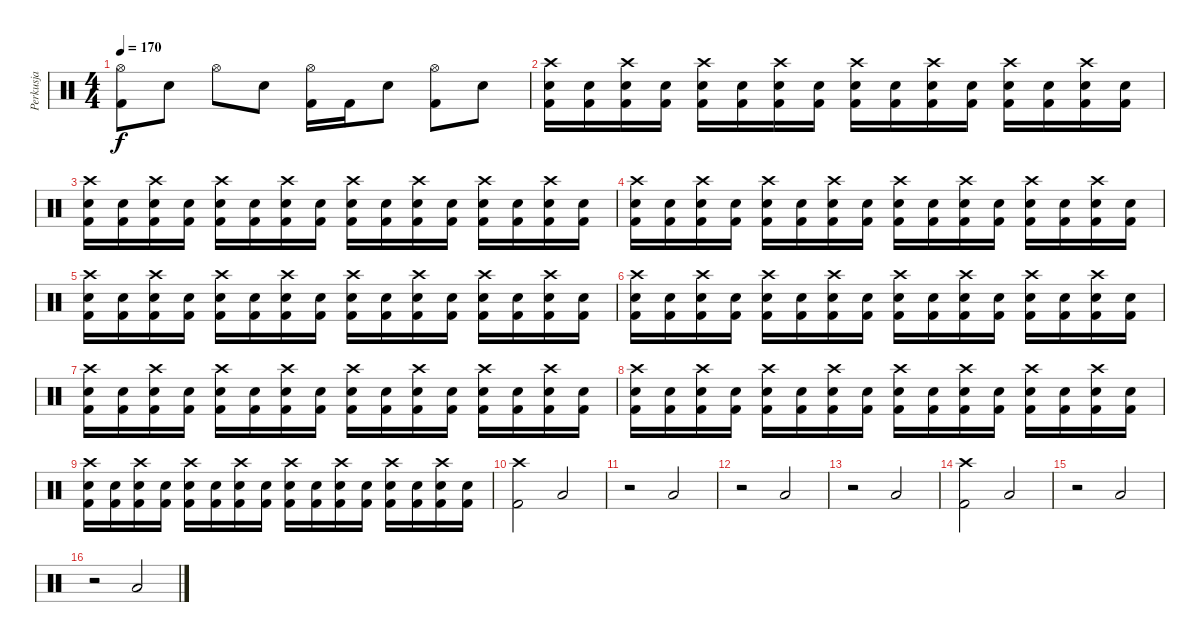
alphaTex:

\track ("Perkusja" "Perkusja") {instrument percussion}
\staff {score}
\articulation defaults
\ts (4 4)
\tempo 170
\clef neutral
\ks c
("Hi-Hat (open)" "Kick (hit) 2").8{dy f} "Electric Snare (hit)".8 "Hi-Hat (open)".8 "Electric Snare (hit)".8 ("Hi-Hat (open)" "Kick (hit) 2").16 "Kick (hit) 2".16 "Electric Snare (hit)".8 ("Hi-Hat (open)" "Kick (hit) 2").8 "Electric Snare (hit)".8 |
("Crash high (hit)" "Electric Snare (hit)" "Kick (hit) 2").16 ("Electric Snare (hit)" "Kick (hit) 2").16 ("Crash high (hit)" "Electric Snare (hit)" "Kick (hit) 2").16 ("Electric Snare (hit)" "Kick (hit) 2").16 ("Crash high (hit)" "Electric Snare (hit)" "Kick (hit) 2").16 ("Electric Snare (hit)" "Kick (hit) 2").16 ("Crash high (hit)" "Electric Snare (hit)" "Kick (hit) 2").16 ("Electric Snare (hit)" "Kick (hit) 2").16 ("Crash high (hit)" "Electric Snare (hit)" "Kick (hit) 2").16 ("Electric Snare (hit)" "Kick (hit) 2").16 ("Crash high (hit)" "Electric Snare (hit)" "Kick (hit) 2").16 ("Electric Snare (hit)" "Kick (hit) 2").16 ("Crash high (hit)" "Electric Snare (hit)" "Kick (hit) 2").16 ("Electric Snare (hit)" "Kick (hit) 2").16 ("Crash high (hit)" "Electric Snare (hit)" "Kick (hit) 2").16 ("Electric Snare (hit)" "Kick (hit) 2").16 |
("Crash high (hit)" "Electric Snare (hit)" "Kick (hit) 2").16 ("Electric Snare (hit)" "Kick (hit) 2").16 ("Crash high (hit)" "Electric Snare (hit)" "Kick (hit) 2").16 ("Electric Snare (hit)" "Kick (hit) 2").16 ("Crash high (hit)" "Electric Snare (hit)" "Kick (hit) 2").16 ("Electric Snare (hit)" "Kick (hit) 2").16 ("Crash high (hit)" "Electric Snare (hit)" "Kick (hit) 2").16 ("Electric Snare (hit)" "Kick (hit) 2").16 ("Crash high (hit)" "Electric Snare (hit)" "Kick (hit) 2").16 ("Electric Snare (hit)" "Kick (hit) 2").16 ("Crash high (hit)" "Electric Snare (hit)" "Kick (hit) 2").16 ("Electric Snare (hit)" "Kick (hit) 2").16 ("Crash high (hit)" "Electric Snare (hit)" "Kick (hit) 2").16 ("Electric Snare (hit)" "Kick (hit) 2").16 ("Crash high (hit)" "Electric Snare (hit)" "Kick (hit) 2").16 ("Electric Snare (hit)" "Kick (hit) 2").16 |
("Crash high (hit)" "Electric Snare (hit)" "Kick (hit) 2").16 ("Electric Snare (hit)" "Kick (hit) 2").16 ("Crash high (hit)" "Electric Snare (hit)" "Kick (hit) 2").16 ("Electric Snare (hit)" "Kick (hit) 2").16 ("Crash high (hit)" "Electric Snare (hit)" "Kick (hit) 2").16 ("Electric Snare (hit)" "Kick (hit) 2").16 ("Crash high (hit)" "Electric Snare (hit)" "Kick (hit) 2").16 ("Electric Snare (hit)" "Kick (hit) 2").16 ("Crash high (hit)" "Electric Snare (hit)" "Kick (hit) 2").16 ("Electric Snare (hit)" "Kick (hit) 2").16 ("Crash high (hit)" "Electric Snare (hit)" "Kick (hit) 2").16 ("Electric Snare (hit)" "Kick (hit) 2").16 ("Crash high (hit)" "Electric Snare (hit)" "Kick (hit) 2").16 ("Electric Snare (hit)" "Kick (hit) 2").16 ("Crash high (hit)" "Electric Snare (hit)" "Kick (hit) 2").16 ("Electric Snare (hit)" "Kick (hit) 2").16 |
("Crash high (hit)" "Electric Snare (hit)" "Kick (hit) 2").16 ("Electric Snare (hit)" "Kick (hit) 2").16 ("Crash high (hit)" "Electric Snare (hit)" "Kick (hit) 2").16 ("Electric Snare (hit)" "Kick (hit) 2").16 ("Crash high (hit)" "Electric Snare (hit)" "Kick (hit) 2").16 ("Electric Snare (hit)" "Kick (hit) 2").16 ("Crash high (hit)" "Electric Snare (hit)" "Kick (hit) 2").16 ("Electric Snare (hit)" "Kick (hit) 2").16 ("Crash high (hit)" "Electric Snare (hit)" "Kick (hit) 2").16 ("Electric Snare (hit)" "Kick (hit) 2").16 ("Crash high (hit)" "Electric Snare (hit)" "Kick (hit) 2").16 ("Electric Snare (hit)" "Kick (hit) 2").16 ("Crash high (hit)" "Electric Snare (hit)" "Kick (hit) 2").16 ("Electric Snare (hit)" "Kick (hit) 2").16 ("Crash high (hit)" "Electric Snare (hit)" "Kick (hit) 2").16 ("Electric Snare (hit)" "Kick (hit) 2").16 |
("Crash high (hit)" "Electric Snare (hit)" "Kick (hit) 2").16 ("Electric Snare (hit)" "Kick (hit) 2").16 ("Crash high (hit)" "Electric Snare (hit)" "Kick (hit) 2").16 ("Electric Snare (hit)" "Kick (hit) 2").16 ("Crash high (hit)" "Electric Snare (hit)" "Kick (hit) 2").16 ("Electric Snare (hit)" "Kick (hit) 2").16 ("Crash high (hit)" "Electric Snare (hit)" "Kick (hit) 2").16 ("Electric Snare (hit)" "Kick (hit) 2").16 ("Crash high (hit)" "Electric Snare (hit)" "Kick (hit) 2").16 ("Electric Snare (hit)" "Kick (hit) 2").16 ("Crash high (hit)" "Electric Snare (hit)" "Kick (hit) 2").16 ("Electric Snare (hit)" "Kick (hit) 2").16 ("Crash high (hit)" "Electric Snare (hit)" "Kick (hit) 2").16 ("Electric Snare (hit)" "Kick (hit) 2").16 ("Crash high (hit)" "Electric Snare (hit)" "Kick (hit) 2").16 ("Electric Snare (hit)" "Kick (hit) 2").16 |
("Crash high (hit)" "Electric Snare (hit)" "Kick (hit) 2").16 ("Electric Snare (hit)" "Kick (hit) 2").16 ("Crash high (hit)" "Electric Snare (hit)" "Kick (hit) 2").16 ("Electric Snare (hit)" "Kick (hit) 2").16 ("Crash high (hit)" "Electric Snare (hit)" "Kick (hit) 2").16 ("Electric Snare (hit)" "Kick (hit) 2").16 ("Crash high (hit)" "Electric Snare (hit)" "Kick (hit) 2").16 ("Electric Snare (hit)" "Kick (hit) 2").16 ("Crash high (hit)" "Electric Snare (hit)" "Kick (hit) 2").16 ("Electric Snare (hit)" "Kick (hit) 2").16 ("Crash high (hit)" "Electric Snare (hit)" "Kick (hit) 2").16 ("Electric Snare (hit)" "Kick (hit) 2").16 ("Crash high (hit)" "Electric Snare (hit)" "Kick (hit) 2").16 ("Electric Snare (hit)" "Kick (hit) 2").16 ("Crash high (hit)" "Electric Snare (hit)" "Kick (hit) 2").16 ("Electric Snare (hit)" "Kick (hit) 2").16 |
("Crash high (hit)" "Electric Snare (hit)" "Kick (hit) 2").16 ("Electric Snare (hit)" "Kick (hit) 2").16 ("Crash high (hit)" "Electric Snare (hit)" "Kick (hit) 2").16 ("Electric Snare (hit)" "Kick (hit) 2").16 ("Crash high (hit)" "Electric Snare (hit)" "Kick (hit) 2").16 ("Electric Snare (hit)" "Kick (hit) 2").16 ("Crash high (hit)" "Electric Snare (hit)" "Kick (hit) 2").16 ("Electric Snare (hit)" "Kick (hit) 2").16 ("Crash high (hit)" "Electric Snare (hit)" "Kick (hit) 2").16 ("Electric Snare (hit)" "Kick (hit) 2").16 ("Crash high (hit)" "Electric Snare (hit)" "Kick (hit) 2").16 ("Electric Snare (hit)" "Kick (hit) 2").16 ("Crash high (hit)" "Electric Snare (hit)" "Kick (hit) 2").16 ("Electric Snare (hit)" "Kick (hit) 2").16 ("Crash high (hit)" "Electric Snare (hit)" "Kick (hit) 2").16 ("Electric Snare (hit)" "Kick (hit) 2").16 |
("Crash high (hit)" "Electric Snare (hit)" "Kick (hit) 2").16 ("Electric Snare (hit)" "Kick (hit) 2").16 ("Crash high (hit)" "Electric Snare (hit)" "Kick (hit) 2").16 ("Electric Snare (hit)" "Kick (hit) 2").16 ("Crash high (hit)" "Electric Snare (hit)" "Kick (hit) 2").16 ("Electric Snare (hit)" "Kick (hit) 2").16 ("Crash high (hit)" "Electric Snare (hit)" "Kick (hit) 2").16 ("Electric Snare (hit)" "Kick (hit) 2").16 ("Crash high (hit)" "Electric Snare (hit)" "Kick (hit) 2").16 ("Electric Snare (hit)" "Kick (hit) 2").16 ("Crash high (hit)" "Electric Snare (hit)" "Kick (hit) 2").16 ("Electric Snare (hit)" "Kick (hit) 2").16 ("Crash high (hit)" "Electric Snare (hit)" "Kick (hit) 2").16 ("Electric Snare (hit)" "Kick (hit) 2").16 ("Crash high (hit)" "Electric Snare (hit)" "Kick (hit) 2").16 ("Electric Snare (hit)" "Kick (hit) 2").16 |
("Crash high (hit)" "Kick (hit) 2").2 "Low Floor Tom (hit)".2 |
r.2 "Low Floor Tom (hit)".2 |
r.2 "Low Floor Tom (hit)".2 |
r.2 "Low Floor Tom (hit)".2 |
("Crash high (hit)" "Kick (hit) 2").2 "Low Floor Tom (hit)".2 |
r.2 "Low Floor Tom (hit)".2 |
r.2 "Low Floor Tom (hit)".2
